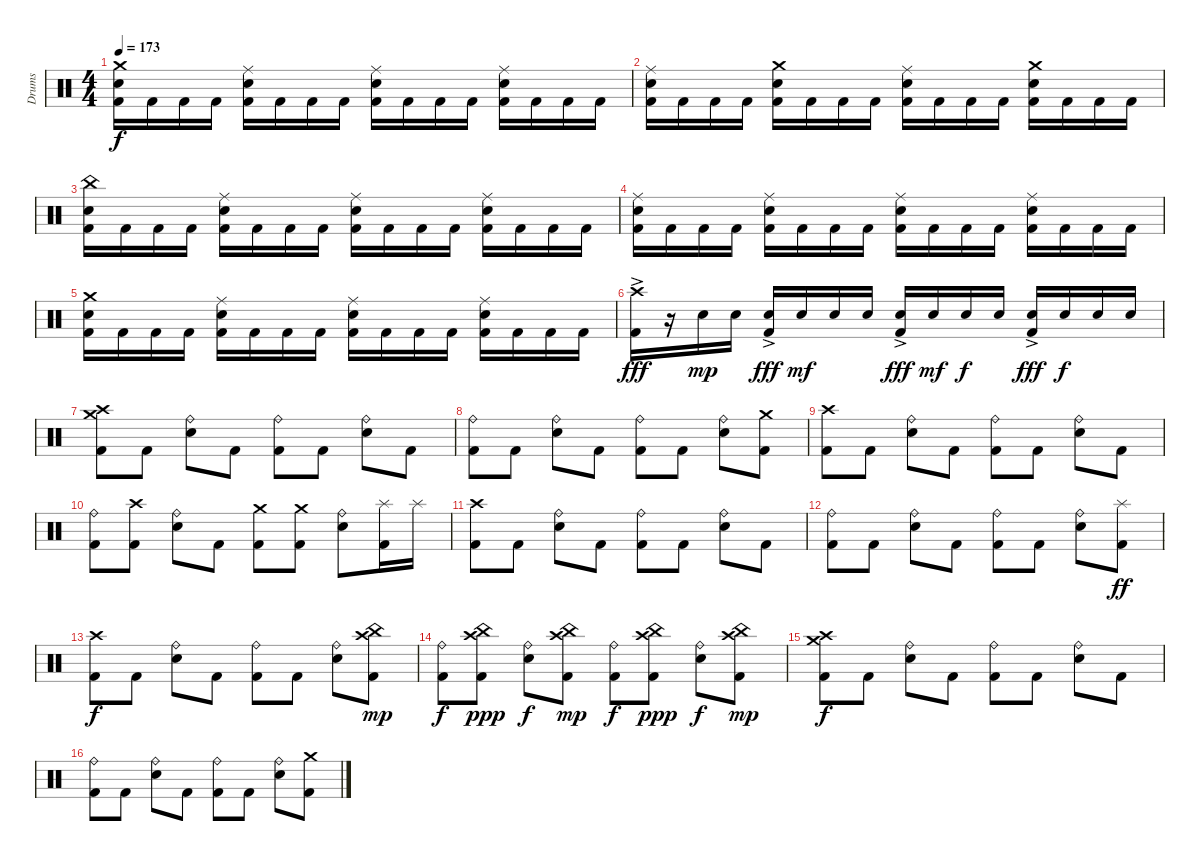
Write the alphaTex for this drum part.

\track ("Drums" "Drums") {instrument percussion}
\staff {score}
\articulation defaults
\ts (4 4)
\tempo 173
\clef neutral
\ks c
("Crash medium (hit)" "Snare (hit) 2" "Kick (hit) 2").16{dy f} "Kick (hit) 2".16 "Kick (hit) 2".16 "Kick (hit) 2".16 ("Ride (middle)" "Snare (hit) 2" "Kick (hit) 2").16 "Kick (hit) 2".16 "Kick (hit) 2".16 "Kick (hit) 2".16 ("Ride (middle)" "Snare (hit) 2" "Kick (hit) 2").16 "Kick (hit) 2".16 "Kick (hit) 2".16 "Kick (hit) 2".16 ("Ride (middle)" "Snare (hit) 2" "Kick (hit) 2").16 "Kick (hit) 2".16 "Kick (hit) 2".16 "Kick (hit) 2".16 |
("Ride (middle)" "Snare (hit) 2" "Kick (hit) 2").16 "Kick (hit) 2".16 "Kick (hit) 2".16 "Kick (hit) 2".16 ("Crash medium (hit)" "Snare (hit) 2" "Kick (hit) 2").16 "Kick (hit) 2".16 "Kick (hit) 2".16 "Kick (hit) 2".16 ("Ride (middle)" "Snare (hit) 2" "Kick (hit) 2").16 "Kick (hit) 2".16 "Kick (hit) 2".16 "Kick (hit) 2".16 ("Crash medium (hit)" "Snare (hit) 2" "Kick (hit) 2").16 "Kick (hit) 2".16 "Kick (hit) 2".16 "Kick (hit) 2".16 |
("China (hit)" "Snare (hit) 2" "Kick (hit) 2").16 "Kick (hit) 2".16 "Kick (hit) 2".16 "Kick (hit) 2".16 ("Ride (middle)" "Snare (hit) 2" "Kick (hit) 2").16 "Kick (hit) 2".16 "Kick (hit) 2".16 "Kick (hit) 2".16 ("Ride (middle)" "Snare (hit) 2" "Kick (hit) 2").16 "Kick (hit) 2".16 "Kick (hit) 2".16 "Kick (hit) 2".16 ("Ride (middle)" "Snare (hit) 2" "Kick (hit) 2").16 "Kick (hit) 2".16 "Kick (hit) 2".16 "Kick (hit) 2".16 |
("Ride (middle)" "Snare (hit) 2" "Kick (hit) 2").16 "Kick (hit) 2".16 "Kick (hit) 2".16 "Kick (hit) 2".16 ("Ride (middle)" "Snare (hit) 2" "Kick (hit) 2").16 "Kick (hit) 2".16 "Kick (hit) 2".16 "Kick (hit) 2".16 ("Ride (middle)" "Snare (hit) 2" "Kick (hit) 2").16 "Kick (hit) 2".16 "Kick (hit) 2".16 "Kick (hit) 2".16 ("Ride (middle)" "Snare (hit) 2" "Kick (hit) 2").16 "Kick (hit) 2".16 "Kick (hit) 2".16 "Kick (hit) 2".16 |
("Crash medium (hit)" "Snare (hit) 2" "Kick (hit) 2").16 "Kick (hit) 2".16 "Kick (hit) 2".16 "Kick (hit) 2".16 ("Ride (middle)" "Snare (hit) 2" "Kick (hit) 2").16 "Kick (hit) 2".16 "Kick (hit) 2".16 "Kick (hit) 2".16 ("Ride (middle)" "Snare (hit) 2" "Kick (hit) 2").16 "Kick (hit) 2".16 "Kick (hit) 2".16 "Kick (hit) 2".16 ("Ride (middle)" "Snare (hit) 2" "Kick (hit) 2").16 "Kick (hit) 2".16 "Kick (hit) 2".16 "Kick (hit) 2".16 |
("Crash high (hit)"{ac} "Kick (hit) 2"{ac}).16{dy fff} r.16 "Snare (hit) 2".16{dy mp} "Snare (hit) 2".16 ("Snare (hit) 2" "Kick (hit) 2"{ac}).16{dy fff} "Snare (hit) 2".16{dy mf} "Snare (hit) 2".16 "Snare (hit) 2".16 ("Snare (hit) 2" "Kick (hit) 2"{ac}).16{dy fff} "Snare (hit) 2".16{dy mf} "Snare (hit) 2".16{dy f} "Snare (hit) 2".16 ("Snare (hit) 2" "Kick (hit) 2"{ac}).16{dy fff} "Snare (hit) 2".16{dy f} "Snare (hit) 2".16 "Snare (hit) 2".16 |
("Crash high (hit)" "Crash medium (hit)" "Kick (hit) 2").8 "Kick (hit) 2".8 ("Ride (bell)" "Snare (hit) 2").8 "Kick (hit) 2".8 ("Ride (bell)" "Kick (hit) 2").8 "Kick (hit) 2".8 ("Ride (bell)" "Snare (hit) 2").8 "Kick (hit) 2".8 |
("Ride (bell)" "Kick (hit) 2").8 "Kick (hit) 2".8 ("Ride (bell)" "Snare (hit) 2").8 "Kick (hit) 2".8 ("Ride (bell)" "Kick (hit) 2").8 "Kick (hit) 2".8 ("Ride (bell)" "Snare (hit) 2").8 ("Crash medium (hit)" "Kick (hit) 2").8 |
("Crash high (hit)" "Kick (hit) 2").8 "Kick (hit) 2".8 ("Ride (bell)" "Snare (hit) 2").8 "Kick (hit) 2".8 ("Ride (bell)" "Kick (hit) 2").8 "Kick (hit) 2".8 ("Ride (bell)" "Snare (hit) 2").8 "Kick (hit) 2".8 |
("Ride (bell)" "Kick (hit) 2").8 ("Crash high (hit)" "Kick (hit) 2").8 ("Ride (bell)" "Snare (hit) 2").8 "Kick (hit) 2".8 ("Crash medium (hit)" "Kick (hit) 2").8 ("Crash medium (hit)" "Kick (hit) 2").8 ("Ride (bell)" "Snare (hit) 2").8 ("Splash (hit)" "Kick (hit) 2").16 "Splash (hit)".16 |
("Crash high (hit)" "Kick (hit) 2").8 "Kick (hit) 2".8 ("Ride (bell)" "Snare (hit) 2").8 "Kick (hit) 2".8 ("Ride (bell)" "Kick (hit) 2").8 "Kick (hit) 2".8 ("Ride (bell)" "Snare (hit) 2").8 "Kick (hit) 2".8 |
("Ride (bell)" "Kick (hit) 2").8 "Kick (hit) 2".8 ("Ride (bell)" "Snare (hit) 2").8 "Kick (hit) 2".8 ("Ride (bell)" "Kick (hit) 2").8 "Kick (hit) 2".8 ("Ride (bell)" "Snare (hit) 2").8 ("Splash (hit)" "Kick (hit) 2").8{dy ff} |
("Crash high (hit)" "Kick (hit) 2").8{dy f} "Kick (hit) 2".8 ("Ride (bell)" "Snare (hit) 2").8 "Kick (hit) 2".8 ("Ride (bell)" "Kick (hit) 2").8 "Kick (hit) 2".8 ("Ride (bell)" "Snare (hit) 2").8 ("Crash high (hit)" "China (hit)" "Kick (hit) 2").8{dy mp} |
("Ride (bell)" "Kick (hit) 2").8{dy f} ("Crash high (hit)" "China (hit)" "Kick (hit) 2").8{dy ppp} ("Ride (bell)" "Snare (hit) 2").8{dy f} ("Crash high (hit)" "China (hit)" "Kick (hit) 2").8{dy mp} ("Ride (bell)" "Kick (hit) 2").8{dy f} ("Crash high (hit)" "China (hit)" "Kick (hit) 2").8{dy ppp} ("Ride (bell)" "Snare (hit) 2").8{dy f} ("Crash high (hit)" "China (hit)" "Kick (hit) 2").8{dy mp} |
("Crash high (hit)" "Crash medium (hit)" "Kick (hit) 2").8{dy f} "Kick (hit) 2".8 ("Ride (bell)" "Snare (hit) 2").8 "Kick (hit) 2".8 ("Ride (bell)" "Kick (hit) 2").8 "Kick (hit) 2".8 ("Ride (bell)" "Snare (hit) 2").8 "Kick (hit) 2".8 |
("Ride (bell)" "Kick (hit) 2").8 "Kick (hit) 2".8 ("Ride (bell)" "Snare (hit) 2").8 "Kick (hit) 2".8 ("Ride (bell)" "Kick (hit) 2").8 "Kick (hit) 2".8 ("Ride (bell)" "Snare (hit) 2").8 ("Crash medium (hit)" "Kick (hit) 2").8
